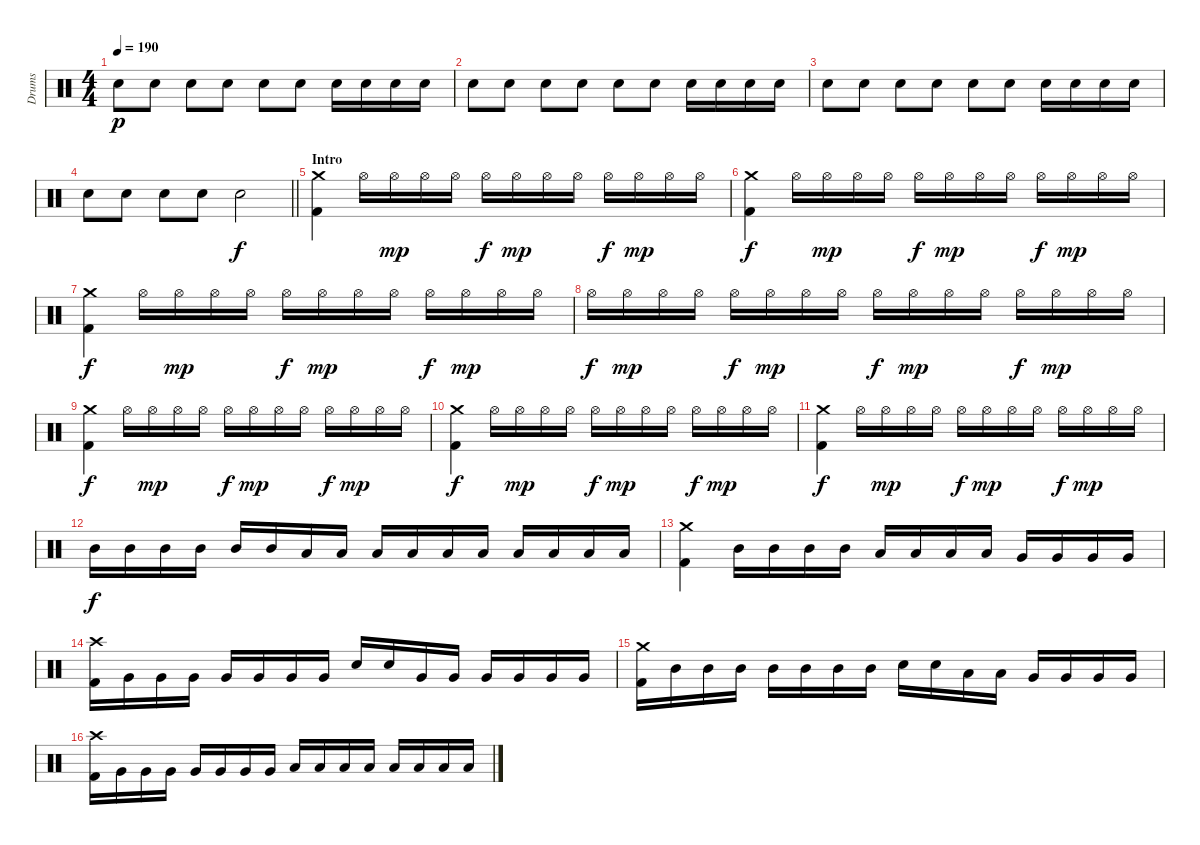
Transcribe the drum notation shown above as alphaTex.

\track ("Drums" "Drums") {instrument percussion}
\staff {score}
\articulation defaults
\ts (4 4)
\tempo 190
\clef neutral
\ks c "Snare (hit) 2".8{dy p} "Snare (hit) 2".8 "Snare (hit) 2".8 "Snare (hit) 2".8 "Snare (hit) 2".8 "Snare (hit) 2".8 "Snare (hit) 2".16 "Snare (hit) 2".16 "Snare (hit) 2".16 "Snare (hit) 2".16
|
"Snare (hit) 2".8 "Snare (hit) 2".8 "Snare (hit) 2".8 "Snare (hit) 2".8 "Snare (hit) 2".8 "Snare (hit) 2".8 "Snare (hit) 2".16 "Snare (hit) 2".16 "Snare (hit) 2".16 "Snare (hit) 2".16 |
"Snare (hit) 2".8 "Snare (hit) 2".8 "Snare (hit) 2".8 "Snare (hit) 2".8 "Snare (hit) 2".8 "Snare (hit) 2".8 "Snare (hit) 2".16 "Snare (hit) 2".16 "Snare (hit) 2".16 "Snare (hit) 2".16 |
\barLineRight lightlight "Snare (hit) 2".8 "Snare (hit) 2".8 "Snare (hit) 2".8 "Snare (hit) 2".8 "Snare (hit) 2".2{dy f}
|
\section ("" "Intro")
("Crash medium (hit)" "Kick (hit) 2").4 "Hi-Hat (open)".16 "Hi-Hat (open)".16{dy mp} "Hi-Hat (open)".16 "Hi-Hat (open)".16 "Hi-Hat (open)".16{dy f} "Hi-Hat (open)".16{dy mp} "Hi-Hat (open)".16 "Hi-Hat (open)".16 "Hi-Hat (open)".16{dy f} "Hi-Hat (open)".16{dy mp} "Hi-Hat (open)".16 "Hi-Hat (open)".16 |
("Crash medium (hit)" "Kick (hit) 2").4{dy f} "Hi-Hat (open)".16 "Hi-Hat (open)".16{dy mp} "Hi-Hat (open)".16 "Hi-Hat (open)".16 "Hi-Hat (open)".16{dy f} "Hi-Hat (open)".16{dy mp} "Hi-Hat (open)".16 "Hi-Hat (open)".16 "Hi-Hat (open)".16{dy f} "Hi-Hat (open)".16{dy mp} "Hi-Hat (open)".16 "Hi-Hat (open)".16 |
("Crash medium (hit)" "Kick (hit) 2").4{dy f} "Hi-Hat (open)".16 "Hi-Hat (open)".16{dy mp} "Hi-Hat (open)".16 "Hi-Hat (open)".16 "Hi-Hat (open)".16{dy f} "Hi-Hat (open)".16{dy mp} "Hi-Hat (open)".16 "Hi-Hat (open)".16 "Hi-Hat (open)".16{dy f} "Hi-Hat (open)".16{dy mp} "Hi-Hat (open)".16 "Hi-Hat (open)".16 |
"Hi-Hat (open)".16{dy f} "Hi-Hat (open)".16{dy mp} "Hi-Hat (open)".16 "Hi-Hat (open)".16 "Hi-Hat (open)".16{dy f} "Hi-Hat (open)".16{dy mp} "Hi-Hat (open)".16 "Hi-Hat (open)".16 "Hi-Hat (open)".16{dy f} "Hi-Hat (open)".16{dy mp} "Hi-Hat (open)".16 "Hi-Hat (open)".16 "Hi-Hat (open)".16{dy f} "Hi-Hat (open)".16{dy mp} "Hi-Hat (open)".16 "Hi-Hat (open)".16 |
("Crash medium (hit)" "Kick (hit) 2").4{dy f} "Hi-Hat (open)".16 "Hi-Hat (open)".16{dy mp} "Hi-Hat (open)".16 "Hi-Hat (open)".16 "Hi-Hat (open)".16{dy f} "Hi-Hat (open)".16{dy mp} "Hi-Hat (open)".16 "Hi-Hat (open)".16 "Hi-Hat (open)".16{dy f} "Hi-Hat (open)".16{dy mp} "Hi-Hat (open)".16 "Hi-Hat (open)".16 |
("Crash medium (hit)" "Kick (hit) 2").4{dy f} "Hi-Hat (open)".16 "Hi-Hat (open)".16{dy mp} "Hi-Hat (open)".16 "Hi-Hat (open)".16 "Hi-Hat (open)".16{dy f} "Hi-Hat (open)".16{dy mp} "Hi-Hat (open)".16 "Hi-Hat (open)".16 "Hi-Hat (open)".16{dy f} "Hi-Hat (open)".16{dy mp} "Hi-Hat (open)".16 "Hi-Hat (open)".16 |
("Crash medium (hit)" "Kick (hit) 2").4{dy f} "Hi-Hat (open)".16 "Hi-Hat (open)".16{dy mp} "Hi-Hat (open)".16 "Hi-Hat (open)".16 "Hi-Hat (open)".16{dy f} "Hi-Hat (open)".16{dy mp} "Hi-Hat (open)".16 "Hi-Hat (open)".16 "Hi-Hat (open)".16{dy f} "Hi-Hat (open)".16{dy mp} "Hi-Hat (open)".16 "Hi-Hat (open)".16 |
"Mid Tom (hit)".16{dy f} "Mid Tom (hit)".16 "Mid Tom (hit)".16 "Mid Tom (hit)".16 "Mid Tom (hit)".16 "Mid Tom (hit)".16 "Low Tom (hit)".16 "Low Tom (hit)".16 "Low Tom (hit)".16 "Low Tom (hit)".16 "Low Tom (hit)".16 "Low Tom (hit)".16 "Low Floor Tom (hit)".16 "Low Floor Tom (hit)".16 "Low Floor Tom (hit)".16 "Low Floor Tom (hit)".16 |
("Crash medium (hit)" "Kick (hit) 2").4 "Mid Tom (hit)".16 "Mid Tom (hit)".16 "Mid Tom (hit)".16 "Mid Tom (hit)".16 "Low Tom (hit)".16 "Low Tom (hit)".16 "Low Tom (hit)".16 "Low Tom (hit)".16 "Very Low Tom (hit)".16 "Very Low Tom (hit)".16 "Very Low Tom (hit)".16 "Very Low Tom (hit)".16 |
("Crash high (hit)" "Kick (hit) 2").16 "Very Low Tom (hit)".16 "Very Low Tom (hit)".16 "Very Low Tom (hit)".16 "Very Low Tom (hit)".16 "Very Low Tom (hit)".16 "Very Low Tom (hit)".16 "Very Low Tom (hit)".16 "Snare (hit) 2".16 "Snare (hit) 2".16 "Very Low Tom (hit)".16 "Very Low Tom (hit)".16 "Very Low Tom (hit)".16 "Very Low Tom (hit)".16 "Very Low Tom (hit)".16 "Very Low Tom (hit)".16 |
("Crash medium (hit)" "Kick (hit) 2").16 "Mid Tom (hit)".16 "Mid Tom (hit)".16 "Mid Tom (hit)".16 "Mid Tom (hit)".16 "Mid Tom (hit)".16 "Mid Tom (hit)".16 "Mid Tom (hit)".16 "Snare (hit) 2".16 "Snare (hit) 2".16 "Low Tom (hit)".16 "Low Tom (hit)".16 "Very Low Tom (hit)".16 "Very Low Tom (hit)".16 "Very Low Tom (hit)".16 "Very Low Tom (hit)".16 |
("Crash high (hit)" "Kick (hit) 2").16 "Very Low Tom (hit)".16 "Very Low Tom (hit)".16 "Very Low Tom (hit)".16 "Very Low Tom (hit)".16 "Very Low Tom (hit)".16 "Very Low Tom (hit)".16 "Very Low Tom (hit)".16 "Low Floor Tom (hit)".16 "Low Floor Tom (hit)".16 "Low Floor Tom (hit)".16 "Low Floor Tom (hit)".16 "Low Floor Tom (hit)".16 "Low Floor Tom (hit)".16 "Low Floor Tom (hit)".16 "Low Floor Tom (hit)".16
